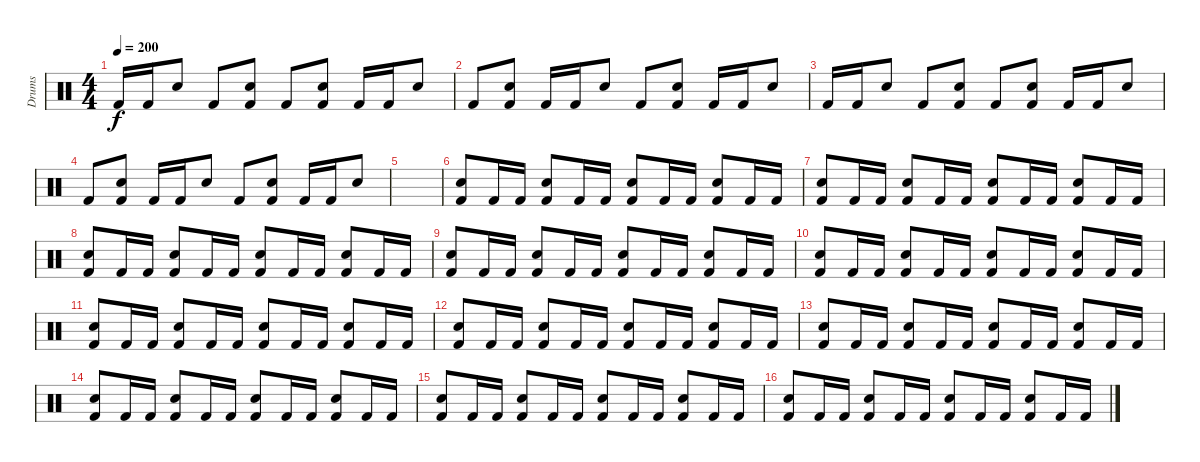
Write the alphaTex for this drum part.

\track ("Drums" "Drums") {instrument percussion}
\staff {score}
\articulation defaults
\ts (4 4)
\tempo 200
\clef neutral
\ks c "Kick (hit) 2".16{dy f} "Kick (hit) 2".16 "Snare (hit) 2".8 "Kick (hit) 2".8
("Snare (hit) 2" "Kick (hit) 2").8 "Kick (hit) 2".8 ("Snare (hit) 2" "Kick (hit) 2").8 "Kick (hit) 2".16 "Kick (hit) 2".16 "Snare (hit) 2".8 |
"Kick (hit) 2".8 ("Snare (hit) 2" "Kick (hit) 2").8 "Kick (hit) 2".16 "Kick (hit) 2".16 "Snare (hit) 2".8 "Kick (hit) 2".8 ("Snare (hit) 2" "Kick (hit) 2").8 "Kick (hit) 2".16 "Kick (hit) 2".16 "Snare (hit) 2".8 |
"Kick (hit) 2".16 "Kick (hit) 2".16 "Snare (hit) 2".8 "Kick (hit) 2".8 ("Snare (hit) 2" "Kick (hit) 2").8 "Kick (hit) 2".8 ("Snare (hit) 2" "Kick (hit) 2").8 "Kick (hit) 2".16 "Kick (hit) 2".16 "Snare (hit) 2".8 |
"Kick (hit) 2".8 ("Snare (hit) 2" "Kick (hit) 2").8 "Kick (hit) 2".16 "Kick (hit) 2".16 "Snare (hit) 2".8 "Kick (hit) 2".8 ("Snare (hit) 2" "Kick (hit) 2").8 "Kick (hit) 2".16 "Kick (hit) 2".16 "Snare (hit) 2".8 |
|
("Snare (hit) 2" "Kick (hit) 2").8 "Kick (hit) 2".16 "Kick (hit) 2".16 ("Snare (hit) 2" "Kick (hit) 2").8 "Kick (hit) 2".16 "Kick (hit) 2".16 ("Snare (hit) 2" "Kick (hit) 2").8 "Kick (hit) 2".16 "Kick (hit) 2".16 ("Snare (hit) 2" "Kick (hit) 2").8 "Kick (hit) 2".16 "Kick (hit) 2".16 |
("Snare (hit) 2" "Kick (hit) 2").8 "Kick (hit) 2".16 "Kick (hit) 2".16 ("Snare (hit) 2" "Kick (hit) 2").8 "Kick (hit) 2".16 "Kick (hit) 2".16 ("Snare (hit) 2" "Kick (hit) 2").8 "Kick (hit) 2".16 "Kick (hit) 2".16 ("Snare (hit) 2" "Kick (hit) 2").8 "Kick (hit) 2".16 "Kick (hit) 2".16 |
("Snare (hit) 2" "Kick (hit) 2").8 "Kick (hit) 2".16 "Kick (hit) 2".16 ("Snare (hit) 2" "Kick (hit) 2").8 "Kick (hit) 2".16 "Kick (hit) 2".16 ("Snare (hit) 2" "Kick (hit) 2").8 "Kick (hit) 2".16 "Kick (hit) 2".16 ("Snare (hit) 2" "Kick (hit) 2").8 "Kick (hit) 2".16 "Kick (hit) 2".16 |
("Snare (hit) 2" "Kick (hit) 2").8 "Kick (hit) 2".16 "Kick (hit) 2".16 ("Snare (hit) 2" "Kick (hit) 2").8 "Kick (hit) 2".16 "Kick (hit) 2".16 ("Snare (hit) 2" "Kick (hit) 2").8 "Kick (hit) 2".16 "Kick (hit) 2".16 ("Snare (hit) 2" "Kick (hit) 2").8 "Kick (hit) 2".16 "Kick (hit) 2".16 |
("Snare (hit) 2" "Kick (hit) 2").8 "Kick (hit) 2".16 "Kick (hit) 2".16 ("Snare (hit) 2" "Kick (hit) 2").8 "Kick (hit) 2".16 "Kick (hit) 2".16 ("Snare (hit) 2" "Kick (hit) 2").8 "Kick (hit) 2".16 "Kick (hit) 2".16 ("Snare (hit) 2" "Kick (hit) 2").8 "Kick (hit) 2".16 "Kick (hit) 2".16 |
("Snare (hit) 2" "Kick (hit) 2").8 "Kick (hit) 2".16 "Kick (hit) 2".16 ("Snare (hit) 2" "Kick (hit) 2").8 "Kick (hit) 2".16 "Kick (hit) 2".16 ("Snare (hit) 2" "Kick (hit) 2").8 "Kick (hit) 2".16 "Kick (hit) 2".16 ("Snare (hit) 2" "Kick (hit) 2").8 "Kick (hit) 2".16 "Kick (hit) 2".16 |
("Snare (hit) 2" "Kick (hit) 2").8 "Kick (hit) 2".16 "Kick (hit) 2".16 ("Snare (hit) 2" "Kick (hit) 2").8 "Kick (hit) 2".16 "Kick (hit) 2".16 ("Snare (hit) 2" "Kick (hit) 2").8 "Kick (hit) 2".16 "Kick (hit) 2".16 ("Snare (hit) 2" "Kick (hit) 2").8 "Kick (hit) 2".16 "Kick (hit) 2".16 |
("Snare (hit) 2" "Kick (hit) 2").8 "Kick (hit) 2".16 "Kick (hit) 2".16 ("Snare (hit) 2" "Kick (hit) 2").8 "Kick (hit) 2".16 "Kick (hit) 2".16 ("Snare (hit) 2" "Kick (hit) 2").8 "Kick (hit) 2".16 "Kick (hit) 2".16 ("Snare (hit) 2" "Kick (hit) 2").8 "Kick (hit) 2".16 "Kick (hit) 2".16 |
("Snare (hit) 2" "Kick (hit) 2").8 "Kick (hit) 2".16 "Kick (hit) 2".16 ("Snare (hit) 2" "Kick (hit) 2").8 "Kick (hit) 2".16 "Kick (hit) 2".16 ("Snare (hit) 2" "Kick (hit) 2").8 "Kick (hit) 2".16 "Kick (hit) 2".16 ("Snare (hit) 2" "Kick (hit) 2").8 "Kick (hit) 2".16 "Kick (hit) 2".16 |
("Snare (hit) 2" "Kick (hit) 2").8 "Kick (hit) 2".16 "Kick (hit) 2".16 ("Snare (hit) 2" "Kick (hit) 2").8 "Kick (hit) 2".16 "Kick (hit) 2".16 ("Snare (hit) 2" "Kick (hit) 2").8 "Kick (hit) 2".16 "Kick (hit) 2".16 ("Snare (hit) 2" "Kick (hit) 2").8 "Kick (hit) 2".16 "Kick (hit) 2".16 |
("Snare (hit) 2" "Kick (hit) 2").8 "Kick (hit) 2".16 "Kick (hit) 2".16 ("Snare (hit) 2" "Kick (hit) 2").8 "Kick (hit) 2".16 "Kick (hit) 2".16 ("Snare (hit) 2" "Kick (hit) 2").8 "Kick (hit) 2".16 "Kick (hit) 2".16 ("Snare (hit) 2" "Kick (hit) 2").8 "Kick (hit) 2".16 "Kick (hit) 2".16
